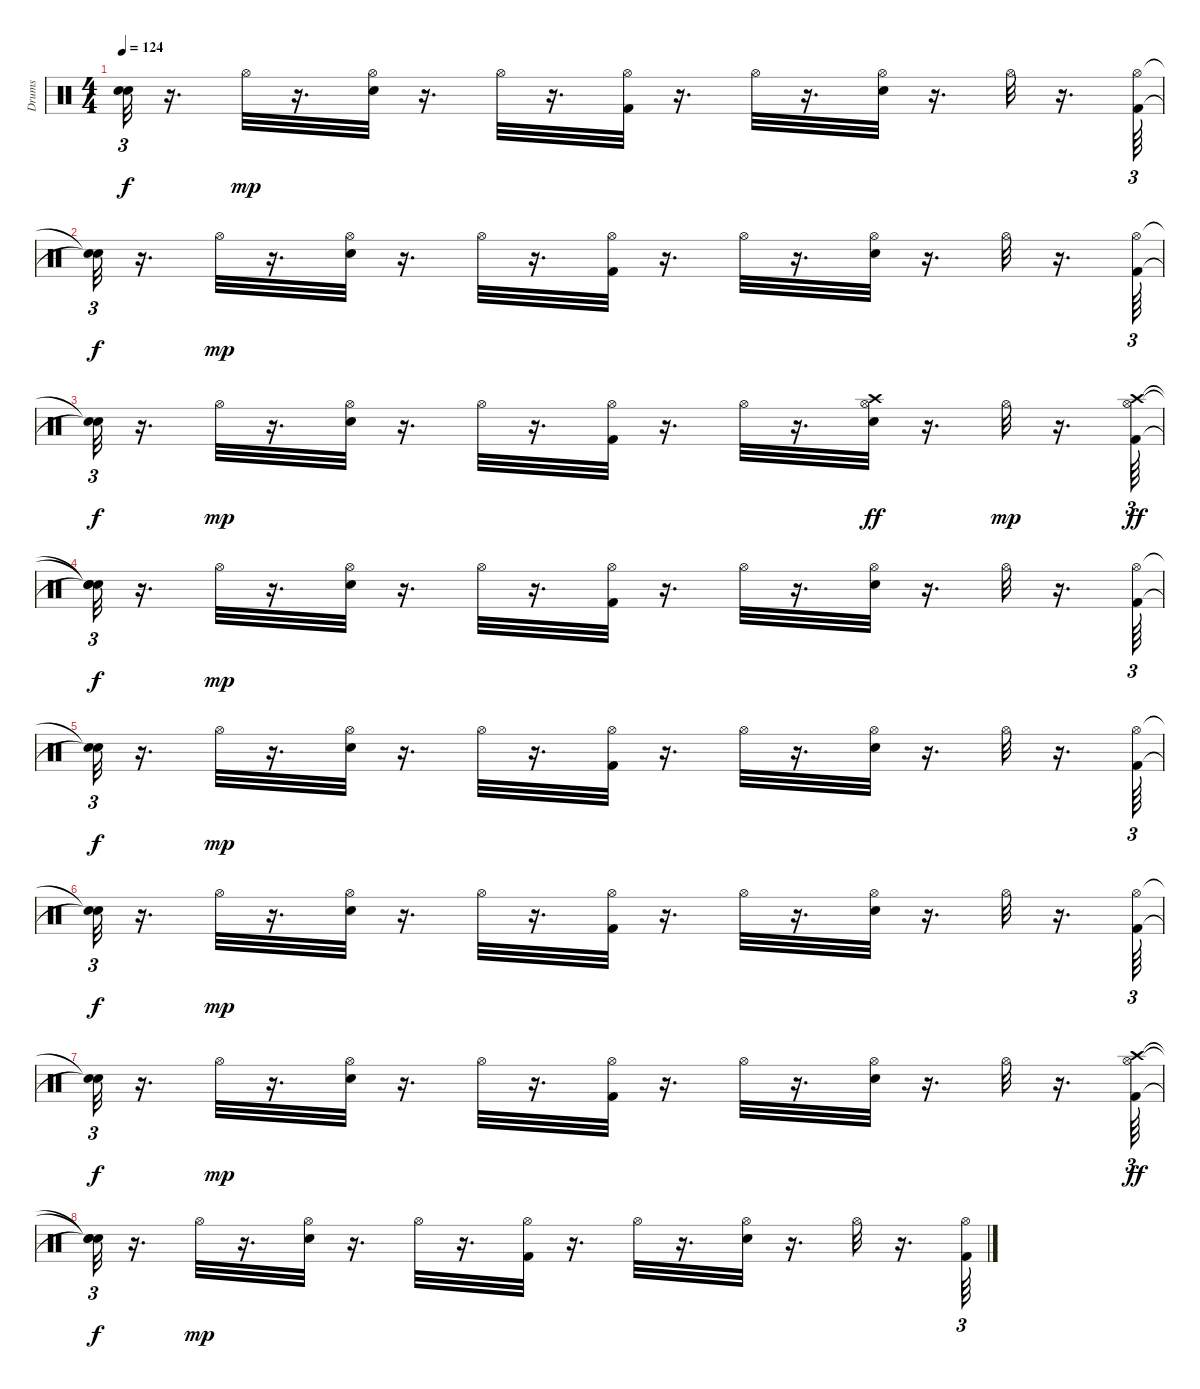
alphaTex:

\track ("Drums" "Drums") {instrument percussion}
\staff {score}
\articulation defaults
\ts (4 4)
\tempo 124
\clef neutral
\ks c
("Snare (hit)"{t} "Snare (hit)"{t}).32{tu (3 2) dy f} r.16{d} "Hi-Hat (open)".32{dy mp} r.16{d} ("Snare (hit) 2" "Hi-Hat (open)").32 r.16{d} "Hi-Hat (open)".32 r.16{d} ("Kick (hit) 2" "Hi-Hat (open)").32 r.16{d} "Hi-Hat (open)".32 r.16{d} ("Snare (hit) 2" "Hi-Hat (open)").32 r.16{d} "Hi-Hat (open)".32 r.16{d} ("Kick (hit) 2" "Hi-Hat (open)").64{tu (3 2)} |
("Snare (hit)"{t} "Snare (hit)"{t}).32{tu (3 2) dy f} r.16{d} "Hi-Hat (open)".32{dy mp} r.16{d} ("Snare (hit) 2" "Hi-Hat (open)").32 r.16{d} "Hi-Hat (open)".32 r.16{d} ("Kick (hit) 2" "Hi-Hat (open)").32 r.16{d} "Hi-Hat (open)".32 r.16{d} ("Snare (hit) 2" "Hi-Hat (open)").32 r.16{d} "Hi-Hat (open)".32 r.16{d} ("Kick (hit) 2" "Hi-Hat (open)").64{tu (3 2)} |
("Snare (hit)"{t} "Snare (hit)"{t}).32{tu (3 2) dy f} r.16{d} "Hi-Hat (open)".32{dy mp} r.16{d} ("Snare (hit) 2" "Hi-Hat (open)").32 r.16{d} "Hi-Hat (open)".32 r.16{d} ("Kick (hit) 2" "Hi-Hat (open)").32 r.16{d} "Hi-Hat (open)".32 r.16{d} ("Snare (hit) 2" "Hi-Hat (open)" "Crash high (hit)").32{dy ff} r.16{d} "Hi-Hat (open)".32{dy mp} r.16{d} ("Kick (hit) 2" "Hi-Hat (open)" "Crash high (hit)").64{tu (3 2) dy ff} |
("Snare (hit)"{t} "Snare (hit)"{t} "Snare (hit)"{t}).32{tu (3 2) dy f} r.16{d} "Hi-Hat (open)".32{dy mp} r.16{d} ("Snare (hit) 2" "Hi-Hat (open)").32 r.16{d} "Hi-Hat (open)".32 r.16{d} ("Kick (hit) 2" "Hi-Hat (open)").32 r.16{d} "Hi-Hat (open)".32 r.16{d} ("Snare (hit) 2" "Hi-Hat (open)").32 r.16{d} "Hi-Hat (open)".32 r.16{d} ("Kick (hit) 2" "Hi-Hat (open)").64{tu (3 2)} |
("Snare (hit)"{t} "Snare (hit)"{t}).32{tu (3 2) dy f} r.16{d} "Hi-Hat (open)".32{dy mp} r.16{d} ("Snare (hit) 2" "Hi-Hat (open)").32 r.16{d} "Hi-Hat (open)".32 r.16{d} ("Kick (hit) 2" "Hi-Hat (open)").32 r.16{d} "Hi-Hat (open)".32 r.16{d} ("Snare (hit) 2" "Hi-Hat (open)").32 r.16{d} "Hi-Hat (open)".32 r.16{d} ("Kick (hit) 2" "Hi-Hat (open)").64{tu (3 2)} |
("Snare (hit)"{t} "Snare (hit)"{t}).32{tu (3 2) dy f} r.16{d} "Hi-Hat (open)".32{dy mp} r.16{d} ("Snare (hit) 2" "Hi-Hat (open)").32 r.16{d} "Hi-Hat (open)".32 r.16{d} ("Kick (hit) 2" "Hi-Hat (open)").32 r.16{d} "Hi-Hat (open)".32 r.16{d} ("Snare (hit) 2" "Hi-Hat (open)").32 r.16{d} "Hi-Hat (open)".32 r.16{d} ("Kick (hit) 2" "Hi-Hat (open)").64{tu (3 2)} |
("Snare (hit)"{t} "Snare (hit)"{t}).32{tu (3 2) dy f} r.16{d} "Hi-Hat (open)".32{dy mp} r.16{d} ("Snare (hit) 2" "Hi-Hat (open)").32 r.16{d} "Hi-Hat (open)".32 r.16{d} ("Kick (hit) 2" "Hi-Hat (open)").32 r.16{d} "Hi-Hat (open)".32 r.16{d} ("Snare (hit) 2" "Hi-Hat (open)").32 r.16{d} "Hi-Hat (open)".32 r.16{d} ("Kick (hit) 2" "Hi-Hat (open)" "Crash high (hit)").64{tu (3 2) dy ff} |
("Snare (hit)"{t} "Snare (hit)"{t} "Snare (hit)"{t}).32{tu (3 2) dy f} r.16{d} "Hi-Hat (open)".32{dy mp} r.16{d} ("Snare (hit) 2" "Hi-Hat (open)").32 r.16{d} "Hi-Hat (open)".32 r.16{d} ("Kick (hit) 2" "Hi-Hat (open)").32 r.16{d} "Hi-Hat (open)".32 r.16{d} ("Snare (hit) 2" "Hi-Hat (open)").32 r.16{d} "Hi-Hat (open)".32 r.16{d} ("Kick (hit) 2" "Hi-Hat (open)").64{tu (3 2)}
